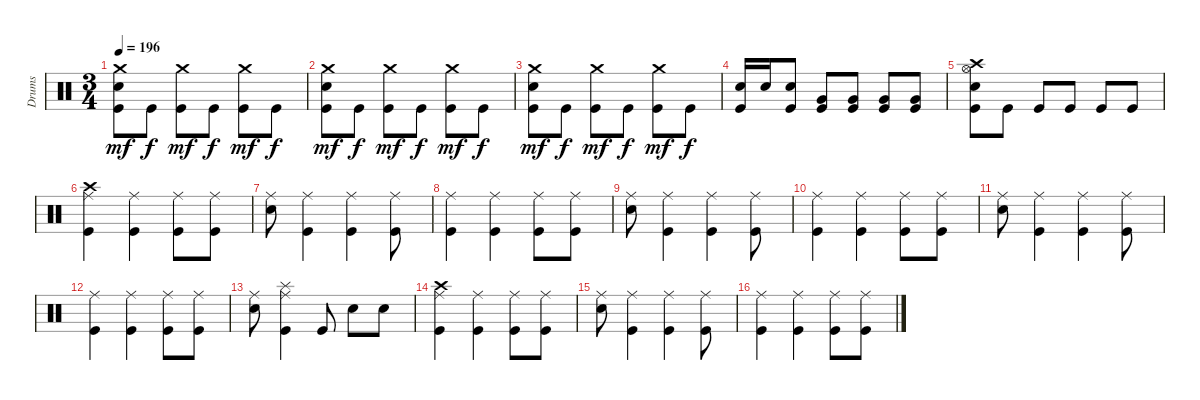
\track ("Drums" "Drums") {instrument percussion}
\staff {score}
\articulation defaults
\ts (3 4)
\tempo 196
\clef neutral
\ks c
("Crash medium (hit)" "Electric Snare (hit)" "Kick (hit)").8{dy mf} "Kick (hit)".8{dy f} ("Crash medium (hit)" "Kick (hit)").8{dy mf} "Kick (hit)".8{dy f} ("Crash medium (hit)" "Kick (hit)").8{dy mf} "Kick (hit)".8{dy f} |
("Crash medium (hit)" "Electric Snare (hit)" "Kick (hit)").8{dy mf} "Kick (hit)".8{dy f} ("Crash medium (hit)" "Kick (hit)").8{dy mf} "Kick (hit)".8{dy f} ("Crash medium (hit)" "Kick (hit)").8{dy mf} "Kick (hit)".8{dy f} |
("Crash medium (hit)" "Electric Snare (hit)" "Kick (hit)").8{dy mf} "Kick (hit)".8{dy f} ("Crash medium (hit)" "Kick (hit)").8{dy mf} "Kick (hit)".8{dy f} ("Crash medium (hit)" "Kick (hit)").8{dy mf} "Kick (hit)".8{dy f} |
("Electric Snare (hit)" "Kick (hit)").16 "Electric Snare (hit)".16 ("Electric Snare (hit)" "Kick (hit)").8 ("Very Low Tom (hit)" "Kick (hit)").8 ("Very Low Tom (hit)" "Kick (hit)").8 ("Very Low Tom (hit)" "Kick (hit)").8 ("Very Low Tom (hit)" "Kick (hit)").8 |
("Crash high (hit)" "Hi-Hat (open)" "Electric Snare (hit)" "Kick (hit)").8 "Kick (hit)".8 "Kick (hit)".8 "Kick (hit)".8 "Kick (hit)".8 "Kick (hit)".8 |
("Crash high (hit)" "Ride (middle)" "Kick (hit)").4 ("Ride (middle)" "Kick (hit)").4 ("Ride (middle)" "Kick (hit)").8 ("Ride (middle)" "Kick (hit)").8 |
("Ride (middle)" "Electric Snare (hit)").8 ("Ride (middle)" "Kick (hit)").4 ("Ride (middle)" "Kick (hit)").4 ("Ride (middle)" "Kick (hit)").8 |
("Ride (middle)" "Kick (hit)").4 ("Ride (middle)" "Kick (hit)").4 ("Ride (middle)" "Kick (hit)").8 ("Ride (middle)" "Kick (hit)").8 |
("Ride (middle)" "Electric Snare (hit)").8 ("Ride (middle)" "Kick (hit)").4 ("Ride (middle)" "Kick (hit)").4 ("Ride (middle)" "Kick (hit)").8 |
("Ride (middle)" "Kick (hit)").4 ("Ride (middle)" "Kick (hit)").4 ("Ride (middle)" "Kick (hit)").8 ("Ride (middle)" "Kick (hit)").8 |
("Ride (middle)" "Electric Snare (hit)").8 ("Ride (middle)" "Kick (hit)").4 ("Ride (middle)" "Kick (hit)").4 ("Ride (middle)" "Kick (hit)").8 |
("Ride (middle)" "Kick (hit)").4 ("Ride (middle)" "Kick (hit)").4 ("Ride (middle)" "Kick (hit)").8 ("Ride (middle)" "Kick (hit)").8 |
("Ride (middle)" "Electric Snare (hit)").8 ("Splash (hit)" "Ride (middle)" "Kick (hit)").4 "Kick (hit)".8 "Electric Snare (hit)".8 "Electric Snare (hit)".8 |
("Crash high (hit)" "Ride (middle)" "Kick (hit)").4 ("Ride (middle)" "Kick (hit)").4 ("Ride (middle)" "Kick (hit)").8 ("Ride (middle)" "Kick (hit)").8 |
("Ride (middle)" "Electric Snare (hit)").8 ("Ride (middle)" "Kick (hit)").4 ("Ride (middle)" "Kick (hit)").4 ("Ride (middle)" "Kick (hit)").8 |
("Ride (middle)" "Kick (hit)").4 ("Ride (middle)" "Kick (hit)").4 ("Ride (middle)" "Kick (hit)").8 ("Ride (middle)" "Kick (hit)").8
